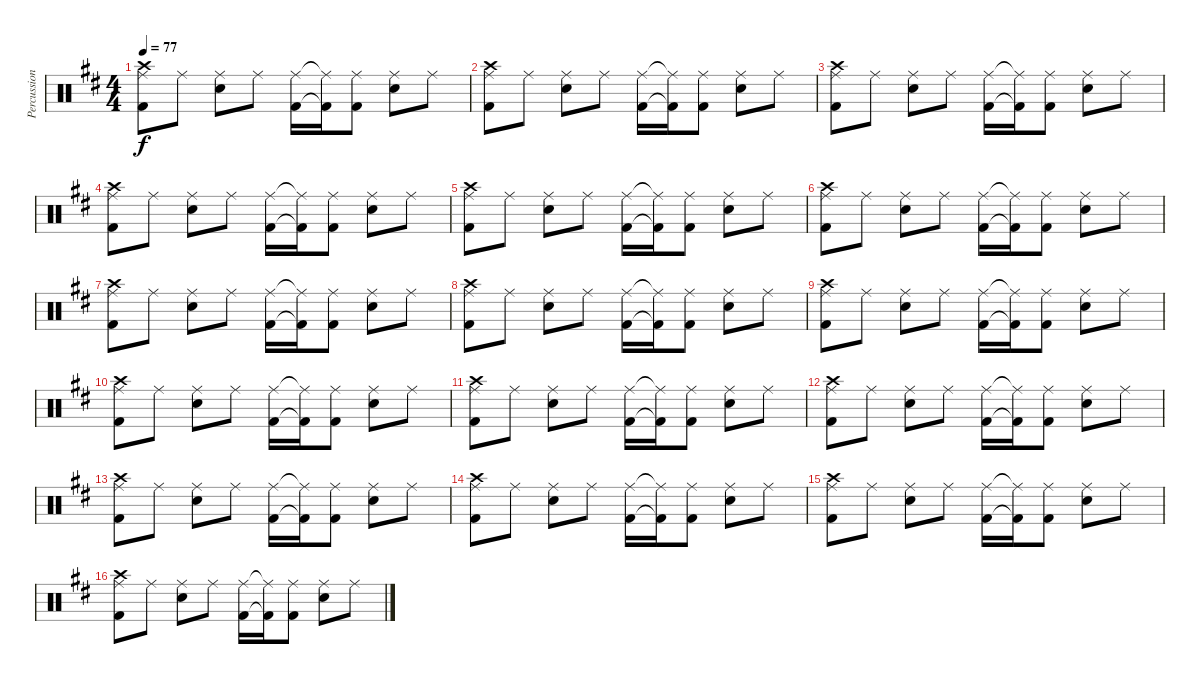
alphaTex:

\track ("Percussion" "Percussion") {instrument percussion}
\staff {score}
\articulation defaults
\ts (4 4)
\tempo 77
\clef neutral
\ks d
("Ride (middle)" "Kick (hit) 2" "Crash high (hit)").8{dy f} "Ride (middle)".8 ("Ride (middle)" "Snare (hit) 2").8 "Ride (middle)".8 ("Ride (middle)" "Kick (hit) 2").16 ("Ride (middle)"{t} "Kick (hit) 2"{t}).16 ("Ride (middle)" "Kick (hit) 2").8 ("Ride (middle)" "Snare (hit) 2").8 "Ride (middle)".8 |
("Ride (middle)" "Kick (hit) 2" "Crash high (hit)").8 "Ride (middle)".8 ("Ride (middle)" "Snare (hit) 2").8 "Ride (middle)".8 ("Ride (middle)" "Kick (hit) 2").16 ("Ride (middle)"{t} "Kick (hit) 2"{t}).16 ("Ride (middle)" "Kick (hit) 2").8 ("Ride (middle)" "Snare (hit) 2").8 "Ride (middle)".8 |
("Ride (middle)" "Kick (hit) 2" "Crash high (hit)").8 "Ride (middle)".8 ("Ride (middle)" "Snare (hit) 2").8 "Ride (middle)".8 ("Ride (middle)" "Kick (hit) 2").16 ("Ride (middle)"{t} "Kick (hit) 2"{t}).16 ("Ride (middle)" "Kick (hit) 2").8 ("Ride (middle)" "Snare (hit) 2").8 "Ride (middle)".8 |
("Ride (middle)" "Kick (hit) 2" "Crash high (hit)").8 "Ride (middle)".8 ("Ride (middle)" "Snare (hit) 2").8 "Ride (middle)".8 ("Ride (middle)" "Kick (hit) 2").16 ("Ride (middle)"{t} "Kick (hit) 2"{t}).16 ("Ride (middle)" "Kick (hit) 2").8 ("Ride (middle)" "Snare (hit) 2").8 "Ride (middle)".8 |
("Ride (middle)" "Kick (hit) 2" "Crash high (hit)").8 "Ride (middle)".8 ("Ride (middle)" "Snare (hit) 2").8 "Ride (middle)".8 ("Ride (middle)" "Kick (hit) 2").16 ("Ride (middle)"{t} "Kick (hit) 2"{t}).16 ("Ride (middle)" "Kick (hit) 2").8 ("Ride (middle)" "Snare (hit) 2").8 "Ride (middle)".8 |
("Ride (middle)" "Kick (hit) 2" "Crash high (hit)").8 "Ride (middle)".8 ("Ride (middle)" "Snare (hit) 2").8 "Ride (middle)".8 ("Ride (middle)" "Kick (hit) 2").16 ("Ride (middle)"{t} "Kick (hit) 2"{t}).16 ("Ride (middle)" "Kick (hit) 2").8 ("Ride (middle)" "Snare (hit) 2").8 "Ride (middle)".8 |
("Ride (middle)" "Kick (hit) 2" "Crash high (hit)").8 "Ride (middle)".8 ("Ride (middle)" "Snare (hit) 2").8 "Ride (middle)".8 ("Ride (middle)" "Kick (hit) 2").16 ("Ride (middle)"{t} "Kick (hit) 2"{t}).16 ("Ride (middle)" "Kick (hit) 2").8 ("Ride (middle)" "Snare (hit) 2").8 "Ride (middle)".8 |
("Ride (middle)" "Kick (hit) 2" "Crash high (hit)").8 "Ride (middle)".8 ("Ride (middle)" "Snare (hit) 2").8 "Ride (middle)".8 ("Ride (middle)" "Kick (hit) 2").16 ("Ride (middle)"{t} "Kick (hit) 2"{t}).16 ("Ride (middle)" "Kick (hit) 2").8 ("Ride (middle)" "Snare (hit) 2").8 "Ride (middle)".8 |
("Ride (middle)" "Kick (hit) 2" "Crash high (hit)").8 "Ride (middle)".8 ("Ride (middle)" "Snare (hit) 2").8 "Ride (middle)".8 ("Ride (middle)" "Kick (hit) 2").16 ("Ride (middle)"{t} "Kick (hit) 2"{t}).16 ("Ride (middle)" "Kick (hit) 2").8 ("Ride (middle)" "Snare (hit) 2").8 "Ride (middle)".8 |
("Ride (middle)" "Kick (hit) 2" "Crash high (hit)").8 "Ride (middle)".8 ("Ride (middle)" "Snare (hit) 2").8 "Ride (middle)".8 ("Ride (middle)" "Kick (hit) 2").16 ("Ride (middle)"{t} "Kick (hit) 2"{t}).16 ("Ride (middle)" "Kick (hit) 2").8 ("Ride (middle)" "Snare (hit) 2").8 "Ride (middle)".8 |
("Ride (middle)" "Kick (hit) 2" "Crash high (hit)").8 "Ride (middle)".8 ("Ride (middle)" "Snare (hit) 2").8 "Ride (middle)".8 ("Ride (middle)" "Kick (hit) 2").16 ("Ride (middle)"{t} "Kick (hit) 2"{t}).16 ("Ride (middle)" "Kick (hit) 2").8 ("Ride (middle)" "Snare (hit) 2").8 "Ride (middle)".8 |
("Ride (middle)" "Kick (hit) 2" "Crash high (hit)").8 "Ride (middle)".8 ("Ride (middle)" "Snare (hit) 2").8 "Ride (middle)".8 ("Ride (middle)" "Kick (hit) 2").16 ("Ride (middle)"{t} "Kick (hit) 2"{t}).16 ("Ride (middle)" "Kick (hit) 2").8 ("Ride (middle)" "Snare (hit) 2").8 "Ride (middle)".8 |
("Ride (middle)" "Kick (hit) 2" "Crash high (hit)").8 "Ride (middle)".8 ("Ride (middle)" "Snare (hit) 2").8 "Ride (middle)".8 ("Ride (middle)" "Kick (hit) 2").16 ("Ride (middle)"{t} "Kick (hit) 2"{t}).16 ("Ride (middle)" "Kick (hit) 2").8 ("Ride (middle)" "Snare (hit) 2").8 "Ride (middle)".8 |
("Ride (middle)" "Kick (hit) 2" "Crash high (hit)").8 "Ride (middle)".8 ("Ride (middle)" "Snare (hit) 2").8 "Ride (middle)".8 ("Ride (middle)" "Kick (hit) 2").16 ("Ride (middle)"{t} "Kick (hit) 2"{t}).16 ("Ride (middle)" "Kick (hit) 2").8 ("Ride (middle)" "Snare (hit) 2").8 "Ride (middle)".8 |
("Ride (middle)" "Kick (hit) 2" "Crash high (hit)").8 "Ride (middle)".8 ("Ride (middle)" "Snare (hit) 2").8 "Ride (middle)".8 ("Ride (middle)" "Kick (hit) 2").16 ("Ride (middle)"{t} "Kick (hit) 2"{t}).16 ("Ride (middle)" "Kick (hit) 2").8 ("Ride (middle)" "Snare (hit) 2").8 "Ride (middle)".8 |
("Ride (middle)" "Kick (hit) 2" "Crash high (hit)").8 "Ride (middle)".8 ("Ride (middle)" "Snare (hit) 2").8 "Ride (middle)".8 ("Ride (middle)" "Kick (hit) 2").16 ("Ride (middle)"{t} "Kick (hit) 2"{t}).16 ("Ride (middle)" "Kick (hit) 2").8 ("Ride (middle)" "Snare (hit) 2").8 "Ride (middle)".8
